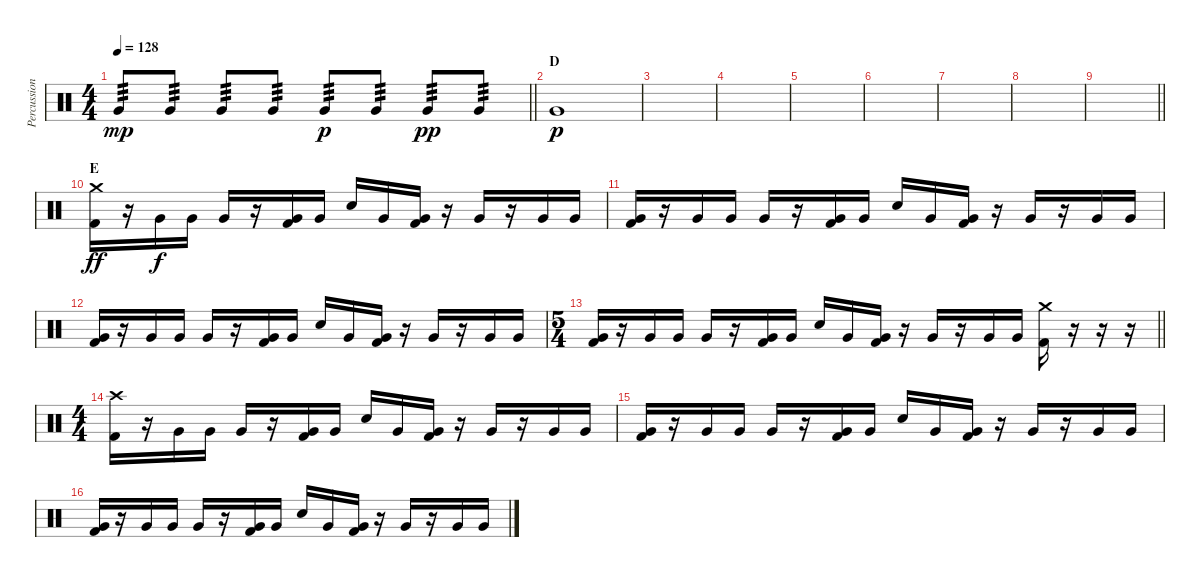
\track ("Percussion" "Percussion") {instrument percussion}
\staff {score}
\articulation defaults
\ts (4 4)
\tempo 128
\clef neutral
\barLineRight lightlight
\ks c "Very Low Tom (hit)".8{tp 3 dy mp} "Very Low Tom (hit)".8{tp 3} "Very Low Tom (hit)".8{tp 3} "Very Low Tom (hit)".8{tp 3} "Very Low Tom (hit)".8{tp 3 dy p} "Very Low Tom (hit)".8{tp 3} "Very Low Tom (hit)".8{tp 3 dy pp} "Very Low Tom (hit)".8{tp 3}
|
\section ("" "D")
"Very Low Tom (hit)".1{dy p} |
|
|
|
|
|
|
\barLineRight lightlight
|
\section ("" "E")
("Crash medium (hit)" "Kick (hit) 2").16{dy ff} r.16 "Very Low Tom (hit)".16{dy f} "Very Low Tom (hit)".16 "Very Low Tom (hit)".16 r.16 ("Very Low Tom (hit)" "Kick (hit) 2").16 "Very Low Tom (hit)".16 "Snare (hit) 2".16 "Very Low Tom (hit)".16 ("Very Low Tom (hit)" "Kick (hit) 2").16 r.16 "Very Low Tom (hit)".16 r.16 "Very Low Tom (hit)".16 "Very Low Tom (hit)".16 |
("Very Low Tom (hit)" "Kick (hit) 2").16 r.16 "Very Low Tom (hit)".16 "Very Low Tom (hit)".16 "Very Low Tom (hit)".16 r.16 ("Very Low Tom (hit)" "Kick (hit) 2").16 "Very Low Tom (hit)".16 "Snare (hit) 2".16 "Very Low Tom (hit)".16 ("Very Low Tom (hit)" "Kick (hit) 2").16 r.16 "Very Low Tom (hit)".16 r.16 "Very Low Tom (hit)".16 "Very Low Tom (hit)".16 |
("Very Low Tom (hit)" "Kick (hit) 2").16 r.16 "Very Low Tom (hit)".16 "Very Low Tom (hit)".16 "Very Low Tom (hit)".16 r.16 ("Very Low Tom (hit)" "Kick (hit) 2").16 "Very Low Tom (hit)".16 "Snare (hit) 2".16 "Very Low Tom (hit)".16 ("Very Low Tom (hit)" "Kick (hit) 2").16 r.16 "Very Low Tom (hit)".16 r.16 "Very Low Tom (hit)".16 "Very Low Tom (hit)".16 |
\ts (5 4)
\barLineRight lightlight
("Very Low Tom (hit)" "Kick (hit) 2").16 r.16 "Very Low Tom (hit)".16 "Very Low Tom (hit)".16 "Very Low Tom (hit)".16 r.16 ("Very Low Tom (hit)" "Kick (hit) 2").16 "Very Low Tom (hit)".16 "Snare (hit) 2".16 "Very Low Tom (hit)".16 ("Very Low Tom (hit)" "Kick (hit) 2").16 r.16 "Very Low Tom (hit)".16 r.16 "Very Low Tom (hit)".16 "Very Low Tom (hit)".16 ("Crash medium (hit)" "Kick (hit) 2").16 r.16 r.16 r.16 |
\ts (4 4)
("Crash high (hit)" "Kick (hit) 2").16 r.16 "Very Low Tom (hit)".16 "Very Low Tom (hit)".16 "Very Low Tom (hit)".16 r.16 ("Very Low Tom (hit)" "Kick (hit) 2").16 "Very Low Tom (hit)".16 "Snare (hit) 2".16 "Very Low Tom (hit)".16 ("Very Low Tom (hit)" "Kick (hit) 2").16 r.16 "Very Low Tom (hit)".16 r.16 "Very Low Tom (hit)".16 "Very Low Tom (hit)".16 |
("Very Low Tom (hit)" "Kick (hit) 2").16 r.16 "Very Low Tom (hit)".16 "Very Low Tom (hit)".16 "Very Low Tom (hit)".16 r.16 ("Very Low Tom (hit)" "Kick (hit) 2").16 "Very Low Tom (hit)".16 "Snare (hit) 2".16 "Very Low Tom (hit)".16 ("Very Low Tom (hit)" "Kick (hit) 2").16 r.16 "Very Low Tom (hit)".16 r.16 "Very Low Tom (hit)".16 "Very Low Tom (hit)".16 |
("Very Low Tom (hit)" "Kick (hit) 2").16 r.16 "Very Low Tom (hit)".16 "Very Low Tom (hit)".16 "Very Low Tom (hit)".16 r.16 ("Very Low Tom (hit)" "Kick (hit) 2").16 "Very Low Tom (hit)".16 "Snare (hit) 2".16 "Very Low Tom (hit)".16 ("Very Low Tom (hit)" "Kick (hit) 2").16 r.16 "Very Low Tom (hit)".16 r.16 "Very Low Tom (hit)".16 "Very Low Tom (hit)".16
